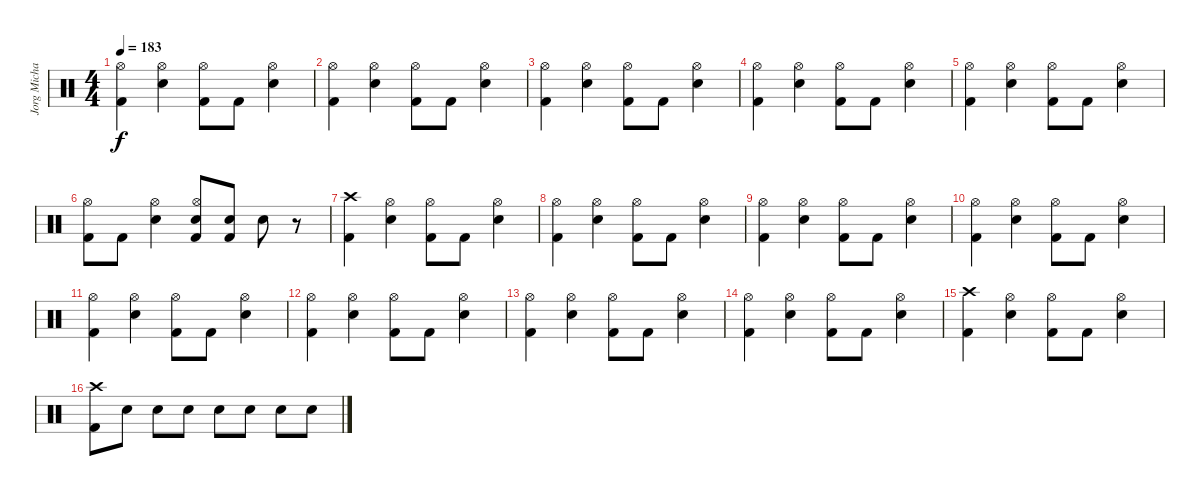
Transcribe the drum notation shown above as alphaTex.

\track ("Jorg Michael" "Jorg Micha") {instrument percussion}
\staff {score}
\articulation defaults
\ts (4 4)
\tempo 183
\clef neutral
\ks c
("Kick (hit) 2" "Hi-Hat (open)").4{dy f} ("Snare (hit) 2" "Hi-Hat (open)").4 ("Kick (hit) 2" "Hi-Hat (open)").8 "Kick (hit) 2".8 ("Snare (hit) 2" "Hi-Hat (open)").4 |
("Kick (hit) 2" "Hi-Hat (open)").4 ("Snare (hit) 2" "Hi-Hat (open)").4 ("Kick (hit) 2" "Hi-Hat (open)").8 "Kick (hit) 2".8 ("Snare (hit) 2" "Hi-Hat (open)").4 |
("Kick (hit) 2" "Hi-Hat (open)").4 ("Snare (hit) 2" "Hi-Hat (open)").4 ("Kick (hit) 2" "Hi-Hat (open)").8 "Kick (hit) 2".8 ("Snare (hit) 2" "Hi-Hat (open)").4 |
("Kick (hit) 2" "Hi-Hat (open)").4 ("Snare (hit) 2" "Hi-Hat (open)").4 ("Kick (hit) 2" "Hi-Hat (open)").8 "Kick (hit) 2".8 ("Snare (hit) 2" "Hi-Hat (open)").4 |
("Kick (hit) 2" "Hi-Hat (open)").4 ("Snare (hit) 2" "Hi-Hat (open)").4 ("Kick (hit) 2" "Hi-Hat (open)").8 "Kick (hit) 2".8 ("Snare (hit) 2" "Hi-Hat (open)").4 |
("Kick (hit) 2" "Hi-Hat (open)").8 "Kick (hit) 2".8 ("Snare (hit) 2" "Hi-Hat (open)").4 ("Snare (hit) 2" "Kick (hit) 2" "Hi-Hat (open)").8 ("Snare (hit) 2" "Kick (hit) 2").8 "Snare (hit) 2".8 r.8 |
("Kick (hit) 2" "Crash high (hit)").4 ("Snare (hit) 2" "Hi-Hat (open)").4 ("Kick (hit) 2" "Hi-Hat (open)").8 "Kick (hit) 2".8 ("Snare (hit) 2" "Hi-Hat (open)").4 |
("Kick (hit) 2" "Hi-Hat (open)").4 ("Snare (hit) 2" "Hi-Hat (open)").4 ("Kick (hit) 2" "Hi-Hat (open)").8 "Kick (hit) 2".8 ("Snare (hit) 2" "Hi-Hat (open)").4 |
("Kick (hit) 2" "Hi-Hat (open)").4 ("Snare (hit) 2" "Hi-Hat (open)").4 ("Kick (hit) 2" "Hi-Hat (open)").8 "Kick (hit) 2".8 ("Snare (hit) 2" "Hi-Hat (open)").4 |
("Kick (hit) 2" "Hi-Hat (open)").4 ("Snare (hit) 2" "Hi-Hat (open)").4 ("Kick (hit) 2" "Hi-Hat (open)").8 "Kick (hit) 2".8 ("Snare (hit) 2" "Hi-Hat (open)").4 |
("Kick (hit) 2" "Hi-Hat (open)").4 ("Snare (hit) 2" "Hi-Hat (open)").4 ("Kick (hit) 2" "Hi-Hat (open)").8 "Kick (hit) 2".8 ("Snare (hit) 2" "Hi-Hat (open)").4 |
("Kick (hit) 2" "Hi-Hat (open)").4 ("Snare (hit) 2" "Hi-Hat (open)").4 ("Kick (hit) 2" "Hi-Hat (open)").8 "Kick (hit) 2".8 ("Snare (hit) 2" "Hi-Hat (open)").4 |
("Kick (hit) 2" "Hi-Hat (open)").4 ("Snare (hit) 2" "Hi-Hat (open)").4 ("Kick (hit) 2" "Hi-Hat (open)").8 "Kick (hit) 2".8 ("Snare (hit) 2" "Hi-Hat (open)").4 |
("Kick (hit) 2" "Hi-Hat (open)").4 ("Snare (hit) 2" "Hi-Hat (open)").4 ("Kick (hit) 2" "Hi-Hat (open)").8 "Kick (hit) 2".8 ("Snare (hit) 2" "Hi-Hat (open)").4 |
("Kick (hit) 2" "Crash high (hit)").4 ("Snare (hit) 2" "Hi-Hat (open)").4 ("Kick (hit) 2" "Hi-Hat (open)").8 "Kick (hit) 2".8 ("Snare (hit) 2" "Hi-Hat (open)").4 |
("Kick (hit) 2" "Crash high (hit)").8 "Snare (hit) 2".8 "Snare (hit) 2".8 "Snare (hit) 2".8 "Snare (hit) 2".8 "Snare (hit) 2".8 "Snare (hit) 2".8 "Snare (hit) 2".8
